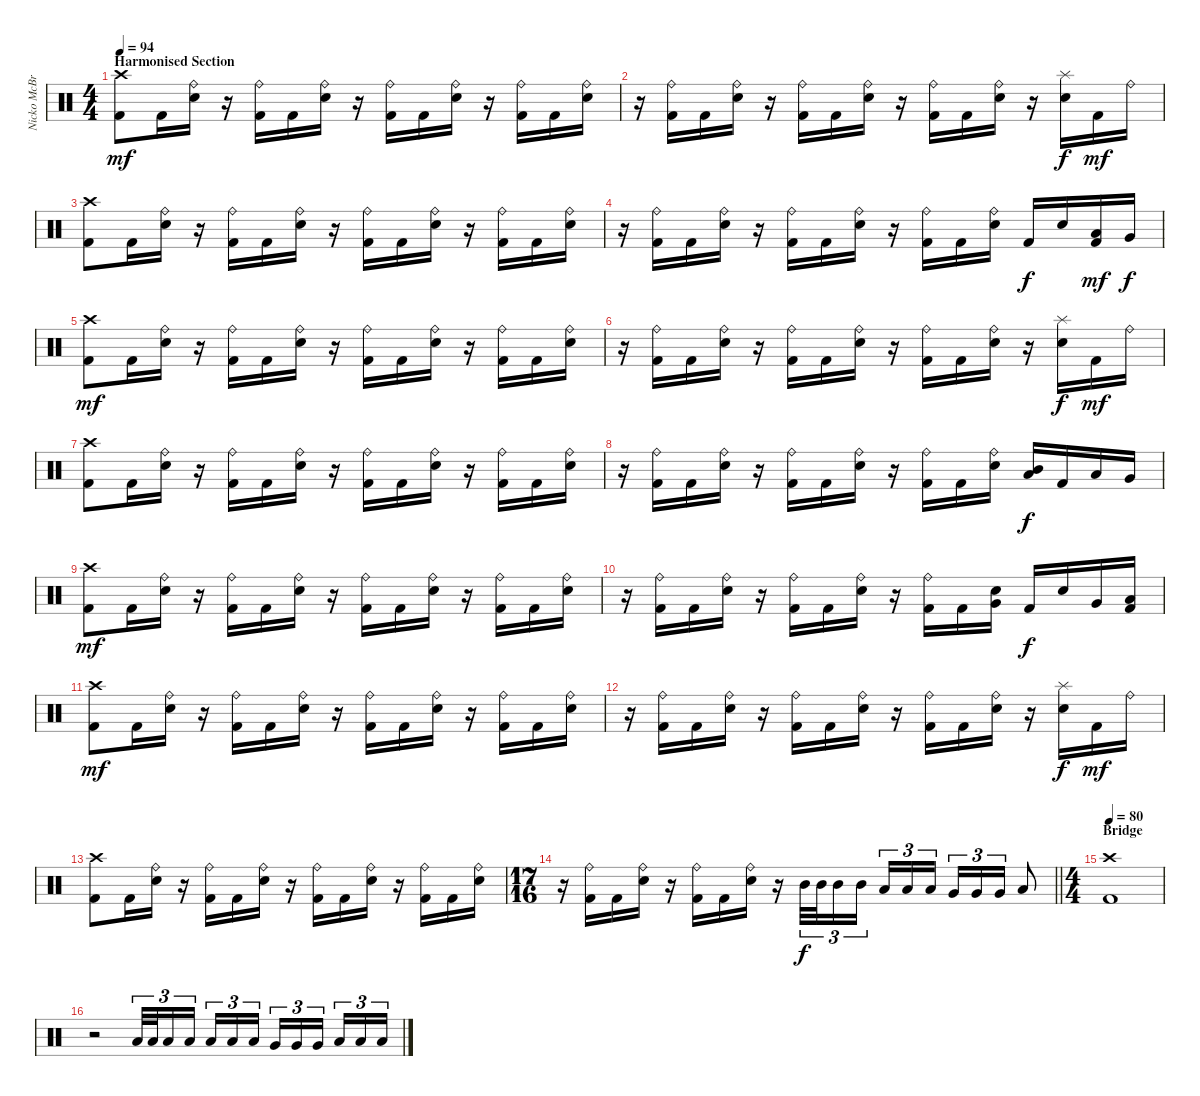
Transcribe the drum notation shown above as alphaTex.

\track ("Nicko McBrian" "Nicko McBr") {instrument percussion}
\staff {score}
\articulation defaults
\ts (4 4)
\section ("" "Harmonised Section")
\tempo 94
\clef neutral
\ks c
("Crash high (hit)" "Kick (hit) 2").8{dy mf} "Kick (hit) 2".16 ("Ride (bell)" "Snare (hit) 2").16 r.16 ("Ride (bell)" "Kick (hit) 2").16 "Kick (hit) 2".16 ("Ride (bell)" "Snare (hit) 2").16 r.16 ("Ride (bell)" "Kick (hit) 2").16 "Kick (hit) 2".16 ("Ride (bell)" "Snare (hit) 2").16 r.16 ("Ride (bell)" "Kick (hit) 2").16 "Kick (hit) 2".16 ("Ride (bell)" "Snare (hit) 2").16 |
r.16 ("Ride (bell)" "Kick (hit) 2").16 "Kick (hit) 2".16 ("Ride (bell)" "Snare (hit) 2").16 r.16 ("Ride (bell)" "Kick (hit) 2").16 "Kick (hit) 2".16 ("Ride (bell)" "Snare (hit) 2").16 r.16 ("Ride (bell)" "Kick (hit) 2").16 "Kick (hit) 2".16 ("Ride (bell)" "Snare (hit) 2").16 r.16 ("Splash (hit)" "Snare (hit) 2").16{dy f} "Kick (hit) 2".16{dy mf} "Ride (bell)".16 |
("Crash high (hit)" "Kick (hit) 2").8 "Kick (hit) 2".16 ("Ride (bell)" "Snare (hit) 2").16 r.16 ("Ride (bell)" "Kick (hit) 2").16 "Kick (hit) 2".16 ("Ride (bell)" "Snare (hit) 2").16 r.16 ("Ride (bell)" "Kick (hit) 2").16 "Kick (hit) 2".16 ("Ride (bell)" "Snare (hit) 2").16 r.16 ("Ride (bell)" "Kick (hit) 2").16 "Kick (hit) 2".16 ("Ride (bell)" "Snare (hit) 2").16 |
r.16 ("Ride (bell)" "Kick (hit) 2").16 "Kick (hit) 2".16 ("Ride (bell)" "Snare (hit) 2").16 r.16 ("Ride (bell)" "Kick (hit) 2").16 "Kick (hit) 2".16 ("Ride (bell)" "Snare (hit) 2").16 r.16 ("Ride (bell)" "Kick (hit) 2").16 "Kick (hit) 2".16 ("Ride (bell)" "Snare (hit) 2").16 "Kick (hit) 2".16{dy f} "Snare (hit) 2".16 ("Low Tom (hit)" "Kick (hit) 2").16{dy mf} "Very Low Tom (hit)".16{dy f} |
("Crash high (hit)" "Kick (hit) 2").8{dy mf} "Kick (hit) 2".16 ("Ride (bell)" "Snare (hit) 2").16 r.16 ("Ride (bell)" "Kick (hit) 2").16 "Kick (hit) 2".16 ("Ride (bell)" "Snare (hit) 2").16 r.16 ("Ride (bell)" "Kick (hit) 2").16 "Kick (hit) 2".16 ("Ride (bell)" "Snare (hit) 2").16 r.16 ("Ride (bell)" "Kick (hit) 2").16 "Kick (hit) 2".16 ("Ride (bell)" "Snare (hit) 2").16 |
r.16 ("Ride (bell)" "Kick (hit) 2").16 "Kick (hit) 2".16 ("Ride (bell)" "Snare (hit) 2").16 r.16 ("Ride (bell)" "Kick (hit) 2").16 "Kick (hit) 2".16 ("Ride (bell)" "Snare (hit) 2").16 r.16 ("Ride (bell)" "Kick (hit) 2").16 "Kick (hit) 2".16 ("Ride (bell)" "Snare (hit) 2").16 r.16 ("Splash (hit)" "Snare (hit) 2").16{dy f} "Kick (hit) 2".16{dy mf} "Ride (bell)".16 |
("Crash high (hit)" "Kick (hit) 2").8 "Kick (hit) 2".16 ("Ride (bell)" "Snare (hit) 2").16 r.16 ("Ride (bell)" "Kick (hit) 2").16 "Kick (hit) 2".16 ("Ride (bell)" "Snare (hit) 2").16 r.16 ("Ride (bell)" "Kick (hit) 2").16 "Kick (hit) 2".16 ("Ride (bell)" "Snare (hit) 2").16 r.16 ("Ride (bell)" "Kick (hit) 2").16 "Kick (hit) 2".16 ("Ride (bell)" "Snare (hit) 2").16 |
r.16 ("Ride (bell)" "Kick (hit) 2").16 "Kick (hit) 2".16 ("Ride (bell)" "Snare (hit) 2").16 r.16 ("Ride (bell)" "Kick (hit) 2").16 "Kick (hit) 2".16 ("Ride (bell)" "Snare (hit) 2").16 r.16 ("Ride (bell)" "Kick (hit) 2").16 "Kick (hit) 2".16 ("Ride (bell)" "Snare (hit) 2").16 ("Mid Tom (hit)" "Low Tom (hit)").16{dy f} "Kick (hit) 2".16 "Low Tom (hit)".16 "Very Low Tom (hit)".16 |
("Crash high (hit)" "Kick (hit) 2").8{dy mf} "Kick (hit) 2".16 ("Ride (bell)" "Snare (hit) 2").16 r.16 ("Ride (bell)" "Kick (hit) 2").16 "Kick (hit) 2".16 ("Ride (bell)" "Snare (hit) 2").16 r.16 ("Ride (bell)" "Kick (hit) 2").16 "Kick (hit) 2".16 ("Ride (bell)" "Snare (hit) 2").16 r.16 ("Ride (bell)" "Kick (hit) 2").16 "Kick (hit) 2".16 ("Ride (bell)" "Snare (hit) 2").16 |
r.16 ("Ride (bell)" "Kick (hit) 2").16 "Kick (hit) 2".16 ("Ride (bell)" "Snare (hit) 2").16 r.16 ("Ride (bell)" "Kick (hit) 2").16 "Kick (hit) 2".16 ("Ride (bell)" "Snare (hit) 2").16 r.16 ("Ride (bell)" "Kick (hit) 2").16 "Kick (hit) 2".16 ("Very Low Tom (hit)" "Snare (hit) 2").16 "Kick (hit) 2".16{dy f} "Snare (hit) 2".16 "Very Low Tom (hit)".16 ("Low Floor Tom (hit)" "Kick (hit) 2").16 |
("Crash high (hit)" "Kick (hit) 2").8{dy mf} "Kick (hit) 2".16 ("Ride (bell)" "Snare (hit) 2").16 r.16 ("Ride (bell)" "Kick (hit) 2").16 "Kick (hit) 2".16 ("Ride (bell)" "Snare (hit) 2").16 r.16 ("Ride (bell)" "Kick (hit) 2").16 "Kick (hit) 2".16 ("Ride (bell)" "Snare (hit) 2").16 r.16 ("Ride (bell)" "Kick (hit) 2").16 "Kick (hit) 2".16 ("Ride (bell)" "Snare (hit) 2").16 |
r.16 ("Ride (bell)" "Kick (hit) 2").16 "Kick (hit) 2".16 ("Ride (bell)" "Snare (hit) 2").16 r.16 ("Ride (bell)" "Kick (hit) 2").16 "Kick (hit) 2".16 ("Ride (bell)" "Snare (hit) 2").16 r.16 ("Ride (bell)" "Kick (hit) 2").16 "Kick (hit) 2".16 ("Ride (bell)" "Snare (hit) 2").16 r.16 ("Splash (hit)" "Snare (hit) 2").16{dy f} "Kick (hit) 2".16{dy mf} "Ride (bell)".16 |
("Crash high (hit)" "Kick (hit) 2").8 "Kick (hit) 2".16 ("Ride (bell)" "Snare (hit) 2").16 r.16 ("Ride (bell)" "Kick (hit) 2").16 "Kick (hit) 2".16 ("Ride (bell)" "Snare (hit) 2").16 r.16 ("Ride (bell)" "Kick (hit) 2").16 "Kick (hit) 2".16 ("Ride (bell)" "Snare (hit) 2").16 r.16 ("Ride (bell)" "Kick (hit) 2").16 "Kick (hit) 2".16 ("Ride (bell)" "Snare (hit) 2").16 |
\ts (17 16)
\barLineRight lightlight
r.16 ("Ride (bell)" "Kick (hit) 2").16 "Kick (hit) 2".16 ("Ride (bell)" "Snare (hit) 2").16 r.16 ("Ride (bell)" "Kick (hit) 2").16 "Kick (hit) 2".16 ("Ride (bell)" "Snare (hit) 2").16 r.16 "Mid Tom (hit)".32{tu (3 2) dy f} "Mid Tom (hit)".32{tu (3 2)} "Mid Tom (hit)".16{tu (3 2)} "Mid Tom (hit)".16{tu (3 2)} "Low Tom (hit)".16{tu (3 2)} "Low Tom (hit)".16{tu (3 2)} "Low Tom (hit)".16{tu (3 2)} "Very Low Tom (hit)".16{tu (3 2)} "Very Low Tom (hit)".16{tu (3 2)} "Very Low Tom (hit)".16{tu (3 2)} "Low Floor Tom (hit)".8 |
\ts (4 4)
\section ("" "Bridge")
\tempo 80
("Crash high (hit)" "Kick (hit) 2").1 |
r.2 "Low Tom (hit)".32{tu (3 2)} "Low Tom (hit)".32{tu (3 2)} "Low Tom (hit)".16{tu (3 2)} "Low Tom (hit)".16{tu (3 2) beam splitsecondary} "Low Tom (hit)".16{tu (3 2)} "Low Tom (hit)".16{tu (3 2)} "Low Tom (hit)".16{tu (3 2)} "Very Low Tom (hit)".16{tu (3 2)} "Very Low Tom (hit)".16{tu (3 2)} "Very Low Tom (hit)".16{tu (3 2) beam splitsecondary} "Low Floor Tom (hit)".16{tu (3 2)} "Low Floor Tom (hit)".16{tu (3 2)} "Low Floor Tom (hit)".16{tu (3 2)}
